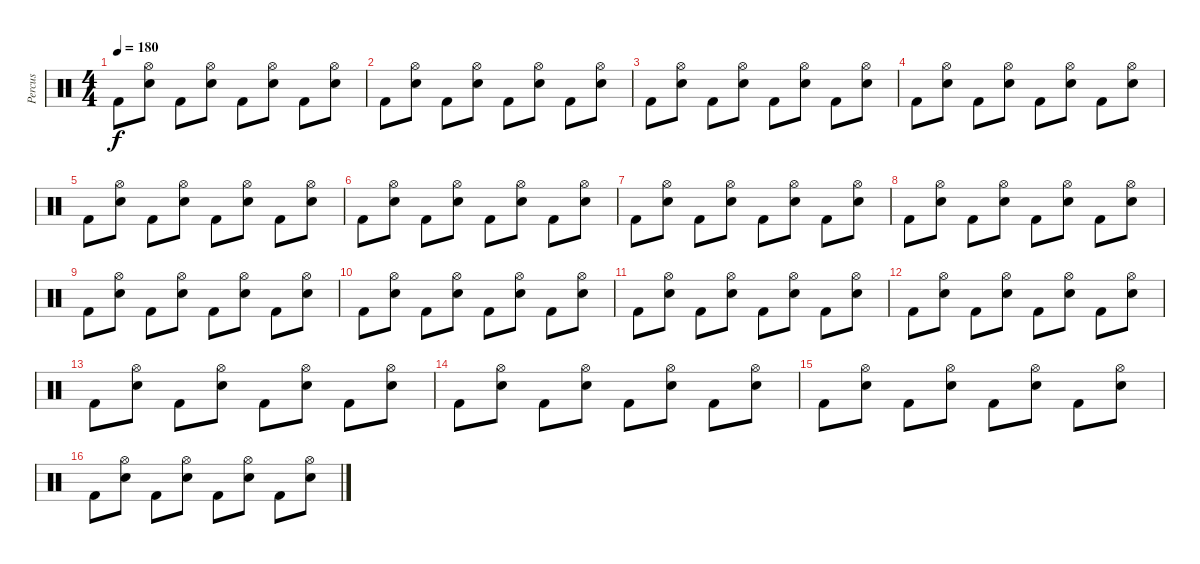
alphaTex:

\track ("Percus" "Percus") {instrument percussion}
\staff {score}
\articulation defaults
\ts (4 4)
\tempo 180
\clef neutral
\ks c "Kick (hit) 2".8{dy f}
("Hi-Hat (open)" "Snare (hit) 2").8 "Kick (hit) 2".8 ("Hi-Hat (open)" "Snare (hit) 2").8 "Kick (hit) 2".8 ("Hi-Hat (open)" "Snare (hit) 2").8 "Kick (hit) 2".8 ("Hi-Hat (open)" "Snare (hit) 2").8 |
"Kick (hit) 2".8 ("Hi-Hat (open)" "Snare (hit) 2").8 "Kick (hit) 2".8 ("Hi-Hat (open)" "Snare (hit) 2").8 "Kick (hit) 2".8 ("Hi-Hat (open)" "Snare (hit) 2").8 "Kick (hit) 2".8 ("Hi-Hat (open)" "Snare (hit) 2").8 |
"Kick (hit) 2".8 ("Hi-Hat (open)" "Snare (hit) 2").8 "Kick (hit) 2".8 ("Hi-Hat (open)" "Snare (hit) 2").8 "Kick (hit) 2".8 ("Hi-Hat (open)" "Snare (hit) 2").8 "Kick (hit) 2".8 ("Hi-Hat (open)" "Snare (hit) 2").8 |
"Kick (hit) 2".8 ("Hi-Hat (open)" "Snare (hit) 2").8 "Kick (hit) 2".8 ("Hi-Hat (open)" "Snare (hit) 2").8 "Kick (hit) 2".8 ("Hi-Hat (open)" "Snare (hit) 2").8 "Kick (hit) 2".8 ("Hi-Hat (open)" "Snare (hit) 2").8 |
\section ("" "")
"Kick (hit) 2".8 ("Hi-Hat (open)" "Snare (hit) 2").8 "Kick (hit) 2".8 ("Hi-Hat (open)" "Snare (hit) 2").8 "Kick (hit) 2".8 ("Hi-Hat (open)" "Snare (hit) 2").8 "Kick (hit) 2".8 ("Hi-Hat (open)" "Snare (hit) 2").8 |
"Kick (hit) 2".8 ("Hi-Hat (open)" "Snare (hit) 2").8 "Kick (hit) 2".8 ("Hi-Hat (open)" "Snare (hit) 2").8 "Kick (hit) 2".8 ("Hi-Hat (open)" "Snare (hit) 2").8 "Kick (hit) 2".8 ("Hi-Hat (open)" "Snare (hit) 2").8 |
"Kick (hit) 2".8 ("Hi-Hat (open)" "Snare (hit) 2").8 "Kick (hit) 2".8 ("Hi-Hat (open)" "Snare (hit) 2").8 "Kick (hit) 2".8 ("Hi-Hat (open)" "Snare (hit) 2").8 "Kick (hit) 2".8 ("Hi-Hat (open)" "Snare (hit) 2").8 |
"Kick (hit) 2".8 ("Hi-Hat (open)" "Snare (hit) 2").8 "Kick (hit) 2".8 ("Hi-Hat (open)" "Snare (hit) 2").8 "Kick (hit) 2".8 ("Hi-Hat (open)" "Snare (hit) 2").8 "Kick (hit) 2".8 ("Hi-Hat (open)" "Snare (hit) 2").8 |
"Kick (hit) 2".8 ("Hi-Hat (open)" "Snare (hit) 2").8 "Kick (hit) 2".8 ("Hi-Hat (open)" "Snare (hit) 2").8 "Kick (hit) 2".8 ("Hi-Hat (open)" "Snare (hit) 2").8 "Kick (hit) 2".8 ("Hi-Hat (open)" "Snare (hit) 2").8 |
"Kick (hit) 2".8 ("Hi-Hat (open)" "Snare (hit) 2").8 "Kick (hit) 2".8 ("Hi-Hat (open)" "Snare (hit) 2").8 "Kick (hit) 2".8 ("Hi-Hat (open)" "Snare (hit) 2").8 "Kick (hit) 2".8 ("Hi-Hat (open)" "Snare (hit) 2").8 |
"Kick (hit) 2".8 ("Hi-Hat (open)" "Snare (hit) 2").8 "Kick (hit) 2".8 ("Hi-Hat (open)" "Snare (hit) 2").8 "Kick (hit) 2".8 ("Hi-Hat (open)" "Snare (hit) 2").8 "Kick (hit) 2".8 ("Hi-Hat (open)" "Snare (hit) 2").8 |
"Kick (hit) 2".8 ("Hi-Hat (open)" "Snare (hit) 2").8 "Kick (hit) 2".8 ("Hi-Hat (open)" "Snare (hit) 2").8 "Kick (hit) 2".8 ("Hi-Hat (open)" "Snare (hit) 2").8 "Kick (hit) 2".8 ("Hi-Hat (open)" "Snare (hit) 2").8 |
"Kick (hit) 2".8 ("Hi-Hat (open)" "Snare (hit) 2").8 "Kick (hit) 2".8 ("Hi-Hat (open)" "Snare (hit) 2").8 "Kick (hit) 2".8 ("Hi-Hat (open)" "Snare (hit) 2").8 "Kick (hit) 2".8 ("Hi-Hat (open)" "Snare (hit) 2").8 |
"Kick (hit) 2".8 ("Hi-Hat (open)" "Snare (hit) 2").8 "Kick (hit) 2".8 ("Hi-Hat (open)" "Snare (hit) 2").8 "Kick (hit) 2".8 ("Hi-Hat (open)" "Snare (hit) 2").8 "Kick (hit) 2".8 ("Hi-Hat (open)" "Snare (hit) 2").8 |
"Kick (hit) 2".8 ("Hi-Hat (open)" "Snare (hit) 2").8 "Kick (hit) 2".8 ("Hi-Hat (open)" "Snare (hit) 2").8 "Kick (hit) 2".8 ("Hi-Hat (open)" "Snare (hit) 2").8 "Kick (hit) 2".8 ("Hi-Hat (open)" "Snare (hit) 2").8 |
"Kick (hit) 2".8 ("Hi-Hat (open)" "Snare (hit) 2").8 "Kick (hit) 2".8 ("Hi-Hat (open)" "Snare (hit) 2").8 "Kick (hit) 2".8 ("Hi-Hat (open)" "Snare (hit) 2").8 "Kick (hit) 2".8 ("Hi-Hat (open)" "Snare (hit) 2").8
